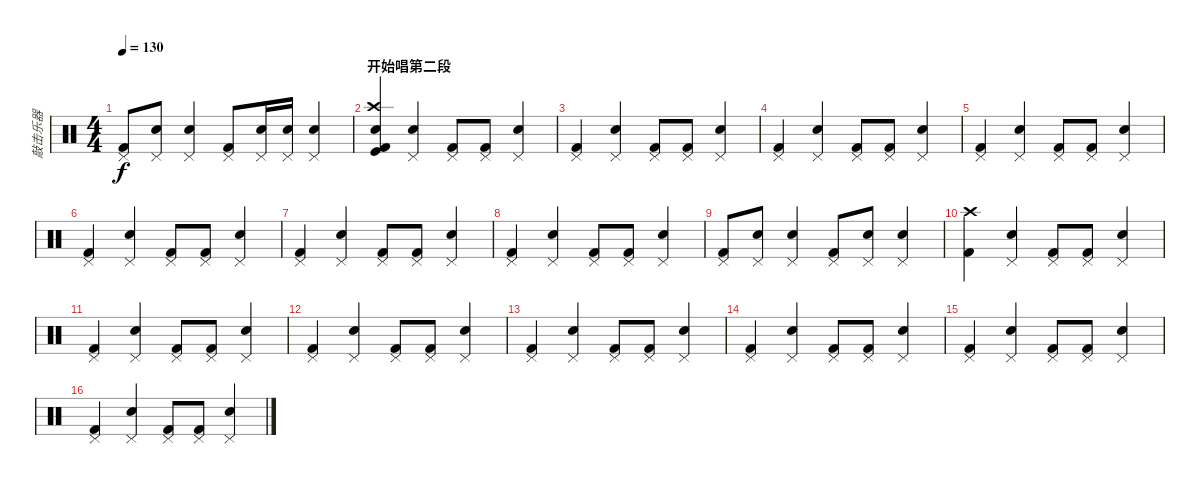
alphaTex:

\track ("敲击乐器" "敲击乐器") {instrument percussion}
\staff {score}
\articulation defaults
\ts (4 4)
\tempo 130
\clef neutral
\ks c
("Kick (hit) 2" "Pedal Hi-Hat (hit)").8{dy f} ("Snare (hit) 2" "Pedal Hi-Hat (hit)").8 ("Snare (hit) 2" "Pedal Hi-Hat (hit)").4 ("Kick (hit) 2" "Pedal Hi-Hat (hit)").8 ("Snare (hit) 2" "Pedal Hi-Hat (hit)").16 ("Snare (hit) 2" "Pedal Hi-Hat (hit)").16 ("Snare (hit) 2" "Pedal Hi-Hat (hit)").4 |
\section ("" "开始唱第二段")
("Kick (hit) 2" "Crash high (hit)" "Kick (hit)" "Metronome (bell)").4 ("Snare (hit) 2" "Pedal Hi-Hat (hit)").4 ("Kick (hit) 2" "Pedal Hi-Hat (hit)").8 ("Kick (hit) 2" "Pedal Hi-Hat (hit)").8 ("Snare (hit) 2" "Pedal Hi-Hat (hit)").4 |
("Kick (hit) 2" "Pedal Hi-Hat (hit)").4 ("Snare (hit) 2" "Pedal Hi-Hat (hit)").4 ("Kick (hit) 2" "Pedal Hi-Hat (hit)").8 ("Kick (hit) 2" "Pedal Hi-Hat (hit)").8 ("Snare (hit) 2" "Pedal Hi-Hat (hit)").4 |
("Kick (hit) 2" "Pedal Hi-Hat (hit)").4 ("Snare (hit) 2" "Pedal Hi-Hat (hit)").4 ("Kick (hit) 2" "Pedal Hi-Hat (hit)").8 ("Kick (hit) 2" "Pedal Hi-Hat (hit)").8 ("Snare (hit) 2" "Pedal Hi-Hat (hit)").4 |
("Kick (hit) 2" "Pedal Hi-Hat (hit)").4 ("Snare (hit) 2" "Pedal Hi-Hat (hit)").4 ("Kick (hit) 2" "Pedal Hi-Hat (hit)").8 ("Kick (hit) 2" "Pedal Hi-Hat (hit)").8 ("Snare (hit) 2" "Pedal Hi-Hat (hit)").4 |
("Kick (hit) 2" "Pedal Hi-Hat (hit)").4 ("Snare (hit) 2" "Pedal Hi-Hat (hit)").4 ("Kick (hit) 2" "Pedal Hi-Hat (hit)").8 ("Kick (hit) 2" "Pedal Hi-Hat (hit)").8 ("Snare (hit) 2" "Pedal Hi-Hat (hit)").4 |
("Kick (hit) 2" "Pedal Hi-Hat (hit)").4 ("Snare (hit) 2" "Pedal Hi-Hat (hit)").4 ("Kick (hit) 2" "Pedal Hi-Hat (hit)").8 ("Kick (hit) 2" "Pedal Hi-Hat (hit)").8 ("Snare (hit) 2" "Pedal Hi-Hat (hit)").4 |
("Kick (hit) 2" "Pedal Hi-Hat (hit)").4 ("Snare (hit) 2" "Pedal Hi-Hat (hit)").4 ("Kick (hit) 2" "Pedal Hi-Hat (hit)").8 ("Kick (hit) 2" "Pedal Hi-Hat (hit)").8 ("Snare (hit) 2" "Pedal Hi-Hat (hit)").4 |
("Kick (hit) 2" "Pedal Hi-Hat (hit)").8 ("Snare (hit) 2" "Pedal Hi-Hat (hit)").8 ("Snare (hit) 2" "Pedal Hi-Hat (hit)").4 ("Kick (hit) 2" "Pedal Hi-Hat (hit)").8 ("Snare (hit) 2" "Pedal Hi-Hat (hit)").8 ("Snare (hit) 2" "Pedal Hi-Hat (hit)").4 |
("Kick (hit) 2" "Crash high (hit)").4 ("Snare (hit) 2" "Pedal Hi-Hat (hit)").4 ("Kick (hit) 2" "Pedal Hi-Hat (hit)").8 ("Kick (hit) 2" "Pedal Hi-Hat (hit)").8 ("Snare (hit) 2" "Pedal Hi-Hat (hit)").4 |
("Kick (hit) 2" "Pedal Hi-Hat (hit)").4 ("Snare (hit) 2" "Pedal Hi-Hat (hit)").4 ("Kick (hit) 2" "Pedal Hi-Hat (hit)").8 ("Kick (hit) 2" "Pedal Hi-Hat (hit)").8 ("Snare (hit) 2" "Pedal Hi-Hat (hit)").4 |
("Kick (hit) 2" "Pedal Hi-Hat (hit)").4 ("Snare (hit) 2" "Pedal Hi-Hat (hit)").4 ("Kick (hit) 2" "Pedal Hi-Hat (hit)").8 ("Kick (hit) 2" "Pedal Hi-Hat (hit)").8 ("Snare (hit) 2" "Pedal Hi-Hat (hit)").4 |
("Kick (hit) 2" "Pedal Hi-Hat (hit)").4 ("Snare (hit) 2" "Pedal Hi-Hat (hit)").4 ("Kick (hit) 2" "Pedal Hi-Hat (hit)").8 ("Kick (hit) 2" "Pedal Hi-Hat (hit)").8 ("Snare (hit) 2" "Pedal Hi-Hat (hit)").4 |
("Kick (hit) 2" "Pedal Hi-Hat (hit)").4 ("Snare (hit) 2" "Pedal Hi-Hat (hit)").4 ("Kick (hit) 2" "Pedal Hi-Hat (hit)").8 ("Kick (hit) 2" "Pedal Hi-Hat (hit)").8 ("Snare (hit) 2" "Pedal Hi-Hat (hit)").4 |
("Kick (hit) 2" "Pedal Hi-Hat (hit)").4 ("Snare (hit) 2" "Pedal Hi-Hat (hit)").4 ("Kick (hit) 2" "Pedal Hi-Hat (hit)").8 ("Kick (hit) 2" "Pedal Hi-Hat (hit)").8 ("Snare (hit) 2" "Pedal Hi-Hat (hit)").4 |
("Kick (hit) 2" "Pedal Hi-Hat (hit)").4 ("Snare (hit) 2" "Pedal Hi-Hat (hit)").4 ("Kick (hit) 2" "Pedal Hi-Hat (hit)").8 ("Kick (hit) 2" "Pedal Hi-Hat (hit)").8 ("Snare (hit) 2" "Pedal Hi-Hat (hit)").4
